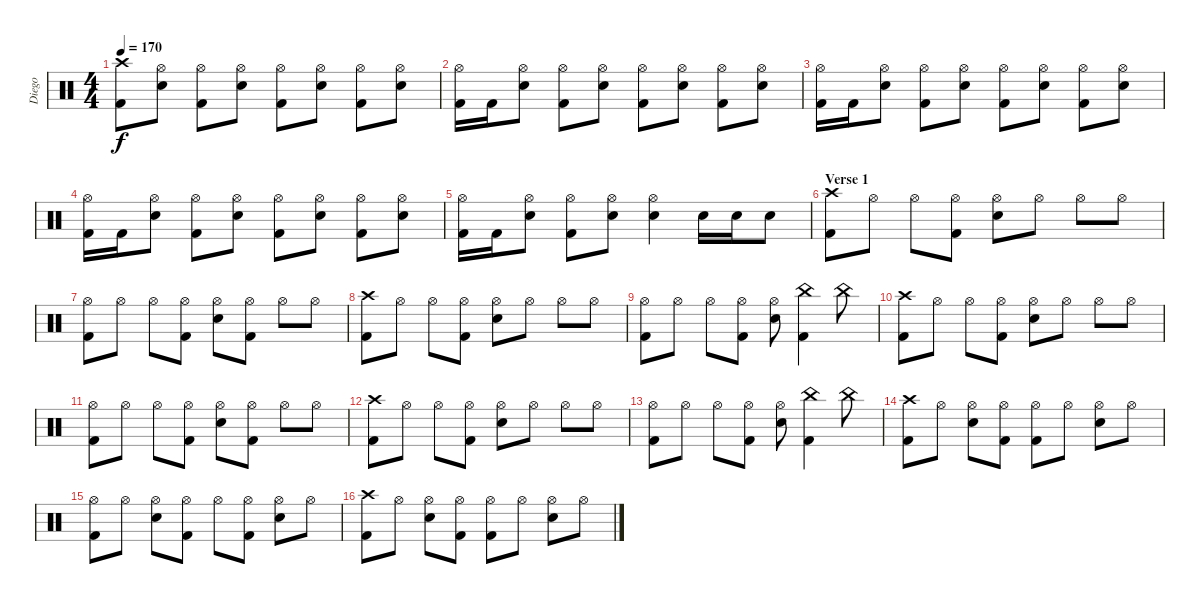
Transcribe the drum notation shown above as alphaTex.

\track ("Diego" "Diego") {instrument percussion}
\staff {score}
\articulation defaults
\ts (4 4)
\tempo 170
\clef neutral
\ks c
("Crash high (hit)" "Kick (hit) 2").8{dy f} ("Hi-Hat (open)" "Electric Snare (hit)").8 ("Hi-Hat (open)" "Kick (hit) 2").8 ("Hi-Hat (open)" "Electric Snare (hit)").8 ("Hi-Hat (open)" "Kick (hit) 2").8 ("Hi-Hat (open)" "Electric Snare (hit)").8 ("Hi-Hat (open)" "Kick (hit) 2").8 ("Hi-Hat (open)" "Electric Snare (hit)").8 |
("Hi-Hat (open)" "Kick (hit) 2").16 "Kick (hit) 2".16 ("Hi-Hat (open)" "Electric Snare (hit)").8 ("Hi-Hat (open)" "Kick (hit) 2").8 ("Hi-Hat (open)" "Electric Snare (hit)").8 ("Hi-Hat (open)" "Kick (hit) 2").8 ("Hi-Hat (open)" "Electric Snare (hit)").8 ("Hi-Hat (open)" "Kick (hit) 2").8 ("Hi-Hat (open)" "Electric Snare (hit)").8 |
("Hi-Hat (open)" "Kick (hit) 2").16 "Kick (hit) 2".16 ("Hi-Hat (open)" "Electric Snare (hit)").8 ("Hi-Hat (open)" "Kick (hit) 2").8 ("Hi-Hat (open)" "Electric Snare (hit)").8 ("Hi-Hat (open)" "Kick (hit) 2").8 ("Hi-Hat (open)" "Electric Snare (hit)").8 ("Hi-Hat (open)" "Kick (hit) 2").8 ("Hi-Hat (open)" "Electric Snare (hit)").8 |
("Hi-Hat (open)" "Kick (hit) 2").16 "Kick (hit) 2".16 ("Hi-Hat (open)" "Electric Snare (hit)").8 ("Hi-Hat (open)" "Kick (hit) 2").8 ("Hi-Hat (open)" "Electric Snare (hit)").8 ("Hi-Hat (open)" "Kick (hit) 2").8 ("Hi-Hat (open)" "Electric Snare (hit)").8 ("Hi-Hat (open)" "Kick (hit) 2").8 ("Hi-Hat (open)" "Electric Snare (hit)").8 |
("Hi-Hat (open)" "Kick (hit) 2").16 "Kick (hit) 2".16 ("Hi-Hat (open)" "Electric Snare (hit)").8 ("Hi-Hat (open)" "Kick (hit) 2").8 ("Hi-Hat (open)" "Electric Snare (hit)").8 ("Hi-Hat (open)" "Electric Snare (hit)").4 "Electric Snare (hit)".16 "Electric Snare (hit)".16 "Electric Snare (hit)".8 |
\section ("" "Verse 1")
("Crash high (hit)" "Kick (hit) 2").8 "Hi-Hat (open)".8 "Hi-Hat (open)".8 ("Hi-Hat (open)" "Kick (hit) 2").8 ("Hi-Hat (open)" "Electric Snare (hit)").8 "Hi-Hat (open)".8 "Hi-Hat (open)".8 "Hi-Hat (open)".8 |
("Hi-Hat (open)" "Kick (hit) 2").8 "Hi-Hat (open)".8 "Hi-Hat (open)".8 ("Hi-Hat (open)" "Kick (hit) 2").8 ("Hi-Hat (open)" "Electric Snare (hit)").8 ("Hi-Hat (open)" "Kick (hit) 2").8 "Hi-Hat (open)".8 "Hi-Hat (open)".8 |
("Crash high (hit)" "Kick (hit) 2").8 "Hi-Hat (open)".8 "Hi-Hat (open)".8 ("Hi-Hat (open)" "Kick (hit) 2").8 ("Hi-Hat (open)" "Electric Snare (hit)").8 "Hi-Hat (open)".8 "Hi-Hat (open)".8 "Hi-Hat (open)".8 |
("Hi-Hat (open)" "Kick (hit) 2").8 "Hi-Hat (open)".8 "Hi-Hat (open)".8 ("Hi-Hat (open)" "Kick (hit) 2").8 ("Hi-Hat (open)" "Electric Snare (hit)").8 ("China (hit)" "Kick (hit) 2").4 "China (hit)".8 |
("Crash high (hit)" "Kick (hit) 2").8 "Hi-Hat (open)".8 "Hi-Hat (open)".8 ("Hi-Hat (open)" "Kick (hit) 2").8 ("Hi-Hat (open)" "Electric Snare (hit)").8 "Hi-Hat (open)".8 "Hi-Hat (open)".8 "Hi-Hat (open)".8 |
("Hi-Hat (open)" "Kick (hit) 2").8 "Hi-Hat (open)".8 "Hi-Hat (open)".8 ("Hi-Hat (open)" "Kick (hit) 2").8 ("Hi-Hat (open)" "Electric Snare (hit)").8 ("Hi-Hat (open)" "Kick (hit) 2").8 "Hi-Hat (open)".8 "Hi-Hat (open)".8 |
("Crash high (hit)" "Kick (hit) 2").8 "Hi-Hat (open)".8 "Hi-Hat (open)".8 ("Hi-Hat (open)" "Kick (hit) 2").8 ("Hi-Hat (open)" "Electric Snare (hit)").8 "Hi-Hat (open)".8 "Hi-Hat (open)".8 "Hi-Hat (open)".8 |
("Hi-Hat (open)" "Kick (hit) 2").8 "Hi-Hat (open)".8 "Hi-Hat (open)".8 ("Hi-Hat (open)" "Kick (hit) 2").8 ("Hi-Hat (open)" "Electric Snare (hit)").8 ("China (hit)" "Kick (hit) 2").4 "China (hit)".8 |
("Crash high (hit)" "Kick (hit) 2").8 "Hi-Hat (open)".8 ("Hi-Hat (open)" "Electric Snare (hit)").8 ("Hi-Hat (open)" "Kick (hit) 2").8 ("Hi-Hat (open)" "Kick (hit) 2").8 "Hi-Hat (open)".8 ("Hi-Hat (open)" "Electric Snare (hit)").8 "Hi-Hat (open)".8 |
("Hi-Hat (open)" "Kick (hit) 2").8 "Hi-Hat (open)".8 ("Hi-Hat (open)" "Electric Snare (hit)").8 ("Hi-Hat (open)" "Kick (hit) 2").8 "Hi-Hat (open)".8 ("Hi-Hat (open)" "Kick (hit) 2").8 ("Hi-Hat (open)" "Electric Snare (hit)").8 "Hi-Hat (open)".8 |
("Crash high (hit)" "Kick (hit) 2").8 "Hi-Hat (open)".8 ("Hi-Hat (open)" "Electric Snare (hit)").8 ("Hi-Hat (open)" "Kick (hit) 2").8 ("Hi-Hat (open)" "Kick (hit) 2").8 "Hi-Hat (open)".8 ("Hi-Hat (open)" "Electric Snare (hit)").8 "Hi-Hat (open)".8
